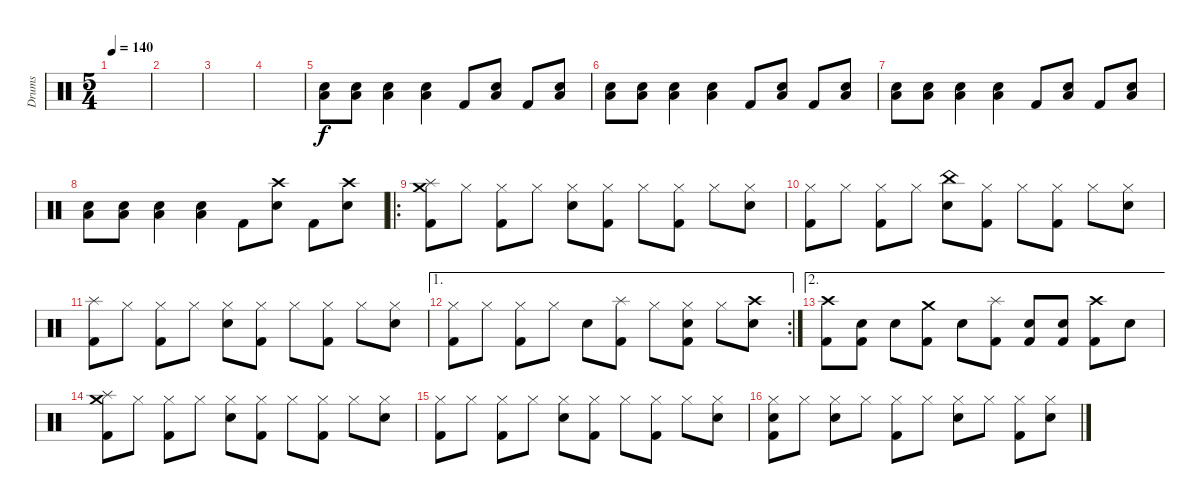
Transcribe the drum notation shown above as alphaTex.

\track ("Drums" "Drums") {instrument percussion}
\staff {score}
\articulation defaults
\ts (5 4)
\tempo 140
\clef neutral
\ks c
|
|
|
|
("Low Floor Tom (hit)" "Snare (hit) 2").8 ("Low Floor Tom (hit)" "Snare (hit) 2").8 ("Low Floor Tom (hit)" "Snare (hit) 2").4 ("Low Floor Tom (hit)" "Snare (hit) 2").4 "Kick (hit) 2".8 ("Low Floor Tom (hit)" "Snare (hit) 2").8 "Kick (hit) 2".8 ("Low Floor Tom (hit)" "Snare (hit) 2").8 |
("Low Floor Tom (hit)" "Snare (hit) 2").8 ("Low Floor Tom (hit)" "Snare (hit) 2").8 ("Low Floor Tom (hit)" "Snare (hit) 2").4 ("Low Floor Tom (hit)" "Snare (hit) 2").4 "Kick (hit) 2".8 ("Low Floor Tom (hit)" "Snare (hit) 2").8 "Kick (hit) 2".8 ("Low Floor Tom (hit)" "Snare (hit) 2").8 |
("Low Floor Tom (hit)" "Snare (hit) 2").8 ("Low Floor Tom (hit)" "Snare (hit) 2").8 ("Low Floor Tom (hit)" "Snare (hit) 2").4 ("Low Floor Tom (hit)" "Snare (hit) 2").4 "Kick (hit) 2".8 ("Low Floor Tom (hit)" "Snare (hit) 2").8 "Kick (hit) 2".8 ("Low Floor Tom (hit)" "Snare (hit) 2").8 |
("Low Floor Tom (hit)" "Snare (hit) 2").8 ("Low Floor Tom (hit)" "Snare (hit) 2").8 ("Low Floor Tom (hit)" "Snare (hit) 2").4 ("Low Floor Tom (hit)" "Snare (hit) 2").4 "Kick (hit) 2".8 ("Crash high (hit)" "Snare (hit) 2").8 "Kick (hit) 2".8 ("Crash high (hit)" "Snare (hit) 2").8 |
\ro
("Crash medium (hit)" "Splash (hit)" "Kick (hit) 2").8 "Hi-Hat (closed)".8 ("Hi-Hat (closed)" "Kick (hit) 2").8 "Hi-Hat (closed)".8 ("Hi-Hat (closed)" "Snare (hit) 2").8 ("Hi-Hat (closed)" "Kick (hit) 2").8 "Hi-Hat (closed)".8 ("Hi-Hat (closed)" "Kick (hit) 2").8 "Hi-Hat (closed)".8 ("Hi-Hat (closed)" "Snare (hit) 2").8 |
("Hi-Hat (closed)" "Kick (hit) 2").8 "Hi-Hat (closed)".8 ("Hi-Hat (closed)" "Kick (hit) 2").8 "Hi-Hat (closed)".8 ("China (hit)" "Snare (hit) 2").8 ("Hi-Hat (closed)" "Kick (hit) 2").8 "Hi-Hat (closed)".8 ("Hi-Hat (closed)" "Kick (hit) 2").8 "Hi-Hat (closed)".8 ("Hi-Hat (closed)" "Snare (hit) 2").8 |
("Splash (hit)" "Kick (hit) 2").8 "Hi-Hat (closed)".8 ("Hi-Hat (closed)" "Kick (hit) 2").8 "Hi-Hat (closed)".8 ("Hi-Hat (closed)" "Snare (hit) 2").8 ("Hi-Hat (closed)" "Kick (hit) 2").8 "Hi-Hat (closed)".8 ("Hi-Hat (closed)" "Kick (hit) 2").8 "Hi-Hat (closed)".8 ("Hi-Hat (closed)" "Snare (hit) 2").8 |
\ae 1
\rc 2
("Hi-Hat (closed)" "Kick (hit) 2").8 "Hi-Hat (closed)".8 ("Hi-Hat (closed)" "Kick (hit) 2").8 "Hi-Hat (closed)".8 "Snare (hit) 2".8 ("Splash (hit)" "Kick (hit) 2").8 "Hi-Hat (closed)".8 ("Hi-Hat (closed)" "Snare (hit) 2" "Kick (hit) 2").8 "Hi-Hat (closed)".8 ("Crash high (hit)" "Snare (hit) 2").8 |
\ae 2
("Crash high (hit)" "Kick (hit) 2").8 ("Snare (hit) 2" "Kick (hit) 2").8 "Snare (hit) 2".8 ("Crash medium (hit)" "Kick (hit) 2").8 "Snare (hit) 2".8 ("Splash (hit)" "Kick (hit) 2").8 ("Snare (hit) 2" "Kick (hit) 2").8 ("Snare (hit) 2" "Kick (hit) 2").8 ("Crash high (hit)" "Kick (hit) 2").8 "Snare (hit) 2".8 |
("Crash medium (hit)" "Splash (hit)" "Kick (hit) 2").8 "Hi-Hat (closed)".8 ("Hi-Hat (closed)" "Kick (hit) 2").8 "Hi-Hat (closed)".8 ("Hi-Hat (closed)" "Snare (hit) 2").8 ("Hi-Hat (closed)" "Kick (hit) 2").8 "Hi-Hat (closed)".8 ("Hi-Hat (closed)" "Kick (hit) 2").8 "Hi-Hat (closed)".8 ("Hi-Hat (closed)" "Snare (hit) 2").8 |
("Hi-Hat (closed)" "Kick (hit) 2").8 "Hi-Hat (closed)".8 ("Hi-Hat (closed)" "Kick (hit) 2").8 "Hi-Hat (closed)".8 ("Hi-Hat (closed)" "Snare (hit) 2").8 ("Hi-Hat (closed)" "Kick (hit) 2").8 "Hi-Hat (closed)".8 ("Hi-Hat (closed)" "Kick (hit) 2").8 "Hi-Hat (closed)".8 ("Hi-Hat (closed)" "Snare (hit) 2").8 |
("Hi-Hat (closed)" "Snare (hit) 2" "Kick (hit) 2").8 "Hi-Hat (closed)".8 ("Hi-Hat (closed)" "Snare (hit) 2").8 "Hi-Hat (closed)".8 ("Hi-Hat (closed)" "Kick (hit) 2").8 "Hi-Hat (closed)".8 ("Hi-Hat (closed)" "Snare (hit) 2").8 "Hi-Hat (closed)".8 ("Hi-Hat (closed)" "Kick (hit) 2").8 ("Hi-Hat (closed)" "Snare (hit) 2").8
